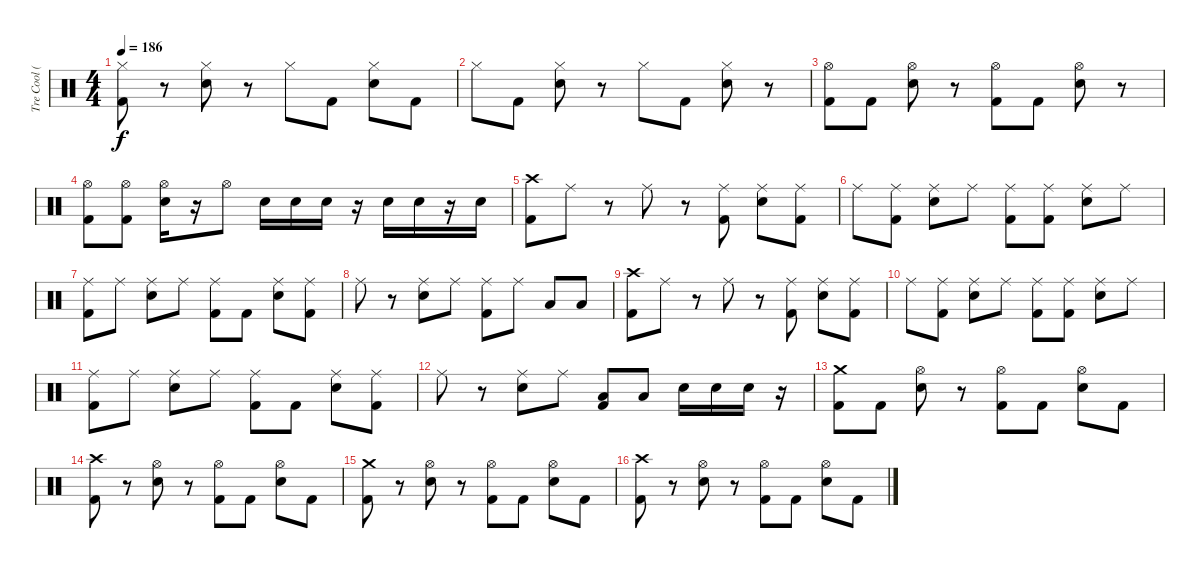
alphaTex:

\track ("Tre Cool (Drums)" "Tre Cool (") {instrument percussion}
\staff {score}
\articulation defaults
\ts (4 4)
\tempo 186
\clef neutral
\ks c
("Kick (hit) 2" "Hi-Hat (closed)").8{dy f} r.8 ("Snare (hit) 2" "Hi-Hat (closed)").8 r.8 "Hi-Hat (closed)".8 "Kick (hit) 2".8 ("Snare (hit) 2" "Hi-Hat (closed)").8 "Kick (hit) 2".8 |
"Hi-Hat (closed)".8 "Kick (hit) 2".8 ("Snare (hit) 2" "Hi-Hat (closed)").8 r.8 "Hi-Hat (closed)".8 "Kick (hit) 2".8 ("Snare (hit) 2" "Hi-Hat (closed)").8 r.8 |
("Hi-Hat (open)" "Kick (hit) 2").8 "Kick (hit) 2".8 ("Hi-Hat (open)" "Snare (hit) 2").8 r.8 ("Hi-Hat (open)" "Kick (hit) 2").8 "Kick (hit) 2".8 ("Hi-Hat (open)" "Snare (hit) 2").8 r.8 |
("Hi-Hat (open)" "Kick (hit) 2").8 ("Hi-Hat (open)" "Kick (hit) 2").8 ("Hi-Hat (open)" "Snare (hit) 2").16 r.16 "Hi-Hat (open)".8 "Snare (hit) 2".16 "Snare (hit) 2".16 "Snare (hit) 2".16 r.16 "Snare (hit) 2".16 "Snare (hit) 2".16 r.16 "Snare (hit) 2".16 |
("Crash high (hit)" "Kick (hit) 2").8 "Ride (middle)".8 r.8 "Ride (middle)".8 r.8 ("Ride (middle)" "Kick (hit) 2").8 ("Ride (middle)" "Snare (hit) 2").8 ("Ride (middle)" "Kick (hit) 2").8 |
"Ride (middle)".8 ("Ride (middle)" "Kick (hit) 2").8 ("Ride (middle)" "Snare (hit) 2").8 "Ride (middle)".8 ("Ride (middle)" "Kick (hit) 2").8 ("Ride (middle)" "Kick (hit) 2").8 ("Ride (middle)" "Snare (hit) 2").8 "Ride (middle)".8 |
("Ride (middle)" "Kick (hit) 2").8 "Ride (middle)".8 ("Ride (middle)" "Snare (hit) 2").8 "Ride (middle)".8 ("Ride (middle)" "Kick (hit) 2").8 "Kick (hit) 2".8 ("Ride (middle)" "Snare (hit) 2").8 ("Ride (middle)" "Kick (hit) 2").8 |
"Ride (middle)".8 r.8 ("Ride (middle)" "Snare (hit) 2").8 "Ride (middle)".8 ("Ride (middle)" "Kick (hit) 2").8 "Ride (middle)".8 "Low Tom (hit)".8 "Low Tom (hit)".8 |
("Kick (hit) 2" "Crash high (hit)").8 "Ride (middle)".8 r.8 "Ride (middle)".8 r.8 ("Kick (hit) 2" "Ride (middle)").8 ("Snare (hit) 2" "Ride (middle)").8 ("Kick (hit) 2" "Ride (middle)").8 |
"Ride (middle)".8 ("Kick (hit) 2" "Ride (middle)").8 ("Snare (hit) 2" "Ride (middle)").8 "Ride (middle)".8 ("Kick (hit) 2" "Ride (middle)").8 ("Kick (hit) 2" "Ride (middle)").8 ("Snare (hit) 2" "Ride (middle)").8 "Ride (middle)".8 |
("Kick (hit) 2" "Ride (middle)").8 "Ride (middle)".8 ("Snare (hit) 2" "Ride (middle)").8 "Ride (middle)".8 ("Kick (hit) 2" "Ride (middle)").8 "Kick (hit) 2".8 ("Snare (hit) 2" "Ride (middle)").8 ("Kick (hit) 2" "Ride (middle)").8 |
"Ride (middle)".8 r.8 ("Snare (hit) 2" "Ride (middle)").8 "Ride (middle)".8 ("Low Tom (hit)" "Kick (hit) 2").8 "Low Tom (hit)".8 "Snare (hit) 2".16 "Snare (hit) 2".16 "Snare (hit) 2".16 r.16 |
("Kick (hit) 2" "Crash medium (hit)").8 "Kick (hit) 2".8 ("Snare (hit) 2" "Hi-Hat (open)").8 r.8 ("Kick (hit) 2" "Hi-Hat (open)").8 "Kick (hit) 2".8 ("Snare (hit) 2" "Hi-Hat (open)").8 "Kick (hit) 2".8 |
("Kick (hit) 2" "Crash high (hit)").8 r.8 ("Snare (hit) 2" "Hi-Hat (open)").8 r.8 ("Kick (hit) 2" "Hi-Hat (open)").8 "Kick (hit) 2".8 ("Snare (hit) 2" "Hi-Hat (open)").8 "Kick (hit) 2".8 |
("Crash medium (hit)" "Kick (hit) 2").8 r.8 ("Hi-Hat (open)" "Snare (hit) 2").8 r.8 ("Hi-Hat (open)" "Kick (hit) 2").8 "Kick (hit) 2".8 ("Hi-Hat (open)" "Snare (hit) 2").8 "Kick (hit) 2".8 |
("Crash high (hit)" "Kick (hit) 2").8 r.8 ("Hi-Hat (open)" "Snare (hit) 2").8 r.8 ("Hi-Hat (open)" "Kick (hit) 2").8 "Kick (hit) 2".8 ("Hi-Hat (open)" "Snare (hit) 2").8 "Kick (hit) 2".8
